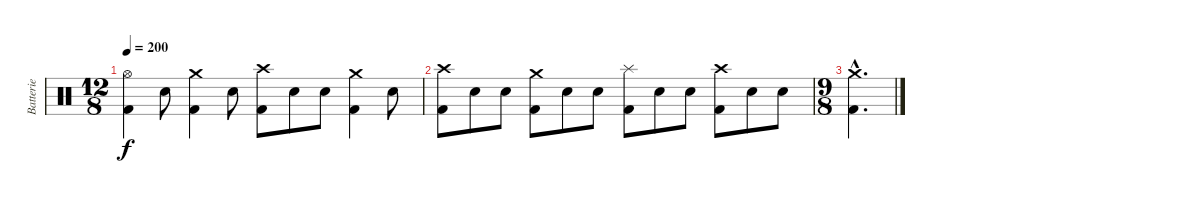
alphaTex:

\track ("Batterie" "Batterie") {instrument percussion}
\staff {score}
\articulation defaults
\ts (12 8)
\tempo 200
\clef neutral
\ks c
("Hi-Hat (open)" "Kick (hit) 2").4{dy f} "Electric Snare (hit)".8 ("Crash medium (hit)" "Kick (hit) 2").4 "Electric Snare (hit)".8 ("Crash high (hit)" "Kick (hit) 2").8 "Electric Snare (hit)".8 "Electric Snare (hit)".8 ("Crash medium (hit)" "Kick (hit) 2").4 "Electric Snare (hit)".8 |
("Crash high (hit)" "Kick (hit) 2").8 "Electric Snare (hit)".8 "Electric Snare (hit)".8 ("Crash medium (hit)" "Kick (hit) 2").8 "Electric Snare (hit)".8 "Electric Snare (hit)".8 ("Splash (hit)" "Kick (hit) 2").8 "Electric Snare (hit)".8 "Electric Snare (hit)".8 ("Crash high (hit)" "Kick (hit) 2").8 "Electric Snare (hit)".8 "Electric Snare (hit)".8 |
\ts (9 8)
("Crash medium (hit)"{hac} "Kick (hit) 2"{hac}).4{d}
